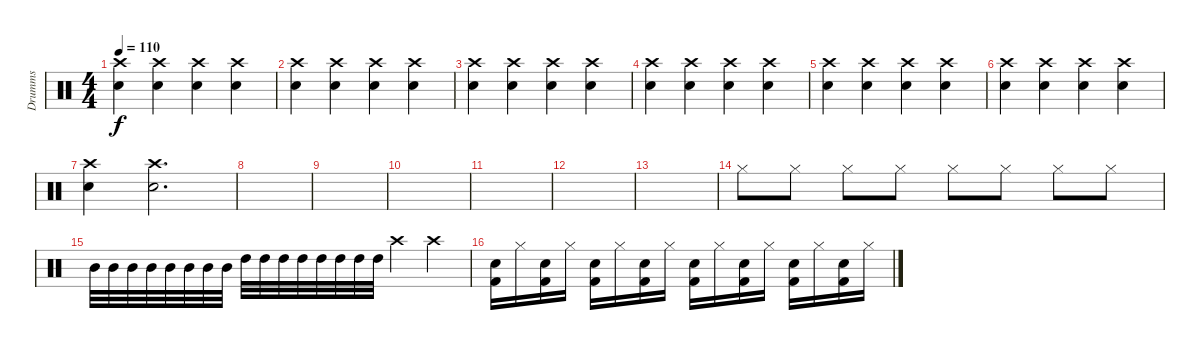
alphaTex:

\track ("Drumms" "Drumms") {instrument percussion}
\staff {score}
\articulation defaults
\ts (4 4)
\tempo 110
\clef neutral
\ks c
("Snare (hit) 2" "Crash high (hit)").4{dy f} ("Snare (hit) 2" "Crash high (hit)").4 ("Snare (hit) 2" "Crash high (hit)").4 ("Snare (hit) 2" "Crash high (hit)").4 |
("Snare (hit) 2" "Crash high (hit)").4 ("Snare (hit) 2" "Crash high (hit)").4 ("Snare (hit) 2" "Crash high (hit)").4 ("Snare (hit) 2" "Crash high (hit)").4 |
("Snare (hit) 2" "Crash high (hit)").4 ("Snare (hit) 2" "Crash high (hit)").4 ("Snare (hit) 2" "Crash high (hit)").4 ("Snare (hit) 2" "Crash high (hit)").4 |
("Snare (hit) 2" "Crash high (hit)").4 ("Snare (hit) 2" "Crash high (hit)").4 ("Snare (hit) 2" "Crash high (hit)").4 ("Snare (hit) 2" "Crash high (hit)").4 |
("Snare (hit) 2" "Crash high (hit)").4 ("Snare (hit) 2" "Crash high (hit)").4 ("Snare (hit) 2" "Crash high (hit)").4 ("Snare (hit) 2" "Crash high (hit)").4 |
("Snare (hit) 2" "Crash high (hit)").4 ("Snare (hit) 2" "Crash high (hit)").4 ("Snare (hit) 2" "Crash high (hit)").4 ("Snare (hit) 2" "Crash high (hit)").4 |
("Snare (hit) 2" "Crash high (hit)").4 ("Snare (hit) 2" "Crash high (hit)").2{d} |
|
|
|
|
|
|
"Hi-Hat (closed)".8 "Hi-Hat (closed)".8 "Hi-Hat (closed)".8 "Hi-Hat (closed)".8 "Hi-Hat (closed)".8 "Hi-Hat (closed)".8 "Hi-Hat (closed)".8 "Hi-Hat (closed)".8 |
"Mid Tom (hit)".32 "Mid Tom (hit)".32 "Mid Tom (hit)".32 "Mid Tom (hit)".32 "Mid Tom (hit)".32 "Mid Tom (hit)".32 "Mid Tom (hit)".32 "Mid Tom (hit)".32 "High Tom (hit)".32 "High Tom (hit)".32 "High Tom (hit)".32 "High Tom (hit)".32 "High Tom (hit)".32 "High Tom (hit)".32 "High Tom (hit)".32 "High Tom (hit)".32 "Crash high (hit)".4 "Crash high (hit)".4 |
("Kick (hit) 2" "Snare (hit) 2").16 "Hi-Hat (closed)".16 ("Kick (hit) 2" "Snare (hit) 2").16 "Hi-Hat (closed)".16 ("Kick (hit) 2" "Snare (hit) 2").16 "Hi-Hat (closed)".16 ("Kick (hit) 2" "Snare (hit) 2").16 "Hi-Hat (closed)".16 ("Kick (hit) 2" "Snare (hit) 2").16 "Hi-Hat (closed)".16 ("Kick (hit) 2" "Snare (hit) 2").16 "Hi-Hat (closed)".16 ("Kick (hit) 2" "Snare (hit) 2").16 "Hi-Hat (closed)".16 ("Kick (hit) 2" "Snare (hit) 2").16 "Hi-Hat (closed)".16
